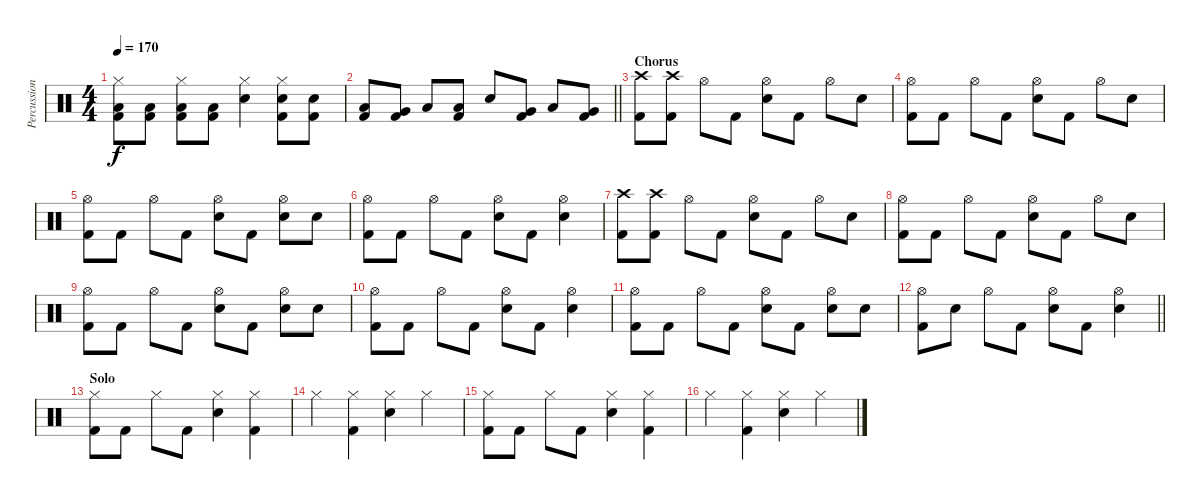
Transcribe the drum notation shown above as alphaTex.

\track ("Percussion" "Percussion") {instrument percussion}
\staff {score}
\articulation defaults
\ts (4 4)
\tempo 170
\clef neutral
\ks c
("Hi-Hat (closed)" "Low Floor Tom (hit)" "Kick (hit) 2").8{dy f} ("Low Floor Tom (hit)" "Kick (hit) 2").8 ("Hi-Hat (closed)" "Low Floor Tom (hit)" "Kick (hit) 2").8 ("Low Floor Tom (hit)" "Kick (hit) 2").8 ("Hi-Hat (closed)" "Electric Snare (hit)").4 ("Hi-Hat (closed)" "Electric Snare (hit)" "Kick (hit) 2").8 ("Electric Snare (hit)" "Kick (hit) 2").8 |
\barLineRight lightlight
("Low Tom (hit)" "Kick (hit) 2").8 ("Very Low Tom (hit)" "Kick (hit) 2").8 "Low Floor Tom (hit)".8 ("Low Floor Tom (hit)" "Kick (hit) 2").8 "Electric Snare (hit)".8 ("Very Low Tom (hit)" "Kick (hit) 2").8 "Low Floor Tom (hit)".8 ("Very Low Tom (hit)" "Kick (hit) 2").8 |
\section ("" "Chorus")
("Crash high (hit)" "Kick (hit) 2").8 ("Crash high (hit)" "Kick (hit) 2").8 "Hi-Hat (open)".8 "Kick (hit) 2".8 ("Hi-Hat (open)" "Electric Snare (hit)").8 "Kick (hit) 2".8 "Hi-Hat (open)".8 "Electric Snare (hit)".8 |
("Hi-Hat (open)" "Kick (hit) 2").8 "Kick (hit) 2".8 "Hi-Hat (open)".8 "Kick (hit) 2".8 ("Hi-Hat (open)" "Electric Snare (hit)").8 "Kick (hit) 2".8 "Hi-Hat (open)".8 "Electric Snare (hit)".8 |
("Hi-Hat (open)" "Kick (hit) 2").8 "Kick (hit) 2".8 "Hi-Hat (open)".8 "Kick (hit) 2".8 ("Hi-Hat (open)" "Electric Snare (hit)").8 "Kick (hit) 2".8 ("Hi-Hat (open)" "Electric Snare (hit)").8 "Electric Snare (hit)".8 |
("Hi-Hat (open)" "Kick (hit) 2").8 "Kick (hit) 2".8 "Hi-Hat (open)".8 "Kick (hit) 2".8 ("Hi-Hat (open)" "Electric Snare (hit)").8 "Kick (hit) 2".8 ("Hi-Hat (open)" "Electric Snare (hit)").4 |
("Crash high (hit)" "Kick (hit) 2").8 ("Crash high (hit)" "Kick (hit) 2").8 "Hi-Hat (open)".8 "Kick (hit) 2".8 ("Hi-Hat (open)" "Electric Snare (hit)").8 "Kick (hit) 2".8 "Hi-Hat (open)".8 "Electric Snare (hit)".8 |
("Hi-Hat (open)" "Kick (hit) 2").8 "Kick (hit) 2".8 "Hi-Hat (open)".8 "Kick (hit) 2".8 ("Hi-Hat (open)" "Electric Snare (hit)").8 "Kick (hit) 2".8 "Hi-Hat (open)".8 "Electric Snare (hit)".8 |
("Hi-Hat (open)" "Kick (hit) 2").8 "Kick (hit) 2".8 "Hi-Hat (open)".8 "Kick (hit) 2".8 ("Hi-Hat (open)" "Electric Snare (hit)").8 "Kick (hit) 2".8 ("Hi-Hat (open)" "Electric Snare (hit)").8 "Electric Snare (hit)".8 |
("Hi-Hat (open)" "Kick (hit) 2").8 "Kick (hit) 2".8 "Hi-Hat (open)".8 "Kick (hit) 2".8 ("Hi-Hat (open)" "Electric Snare (hit)").8 "Kick (hit) 2".8 ("Hi-Hat (open)" "Electric Snare (hit)").4 |
("Hi-Hat (open)" "Kick (hit) 2").8 "Kick (hit) 2".8 "Hi-Hat (open)".8 "Kick (hit) 2".8 ("Hi-Hat (open)" "Electric Snare (hit)").8 "Kick (hit) 2".8 ("Hi-Hat (open)" "Electric Snare (hit)").8 "Electric Snare (hit)".8 |
\barLineRight lightlight
("Hi-Hat (open)" "Kick (hit) 2").8 "Electric Snare (hit)".8 "Hi-Hat (open)".8 "Kick (hit) 2".8 ("Hi-Hat (open)" "Electric Snare (hit)").8 "Kick (hit) 2".8 ("Hi-Hat (open)" "Electric Snare (hit)").4 |
\section ("" "Solo")
("Hi-Hat (closed)" "Kick (hit) 2").8 "Kick (hit) 2".8 "Hi-Hat (closed)".8 "Kick (hit) 2".8 ("Hi-Hat (closed)" "Electric Snare (hit)").4 ("Hi-Hat (closed)" "Kick (hit) 2").4 |
"Hi-Hat (closed)".4 ("Hi-Hat (closed)" "Kick (hit) 2").4 ("Hi-Hat (closed)" "Electric Snare (hit)").4 "Hi-Hat (closed)".4 |
("Hi-Hat (closed)" "Kick (hit) 2").8 "Kick (hit) 2".8 "Hi-Hat (closed)".8 "Kick (hit) 2".8 ("Hi-Hat (closed)" "Electric Snare (hit)").4 ("Hi-Hat (closed)" "Kick (hit) 2").4 |
"Hi-Hat (closed)".4 ("Hi-Hat (closed)" "Kick (hit) 2").4 ("Hi-Hat (closed)" "Electric Snare (hit)").4 "Hi-Hat (closed)".4
